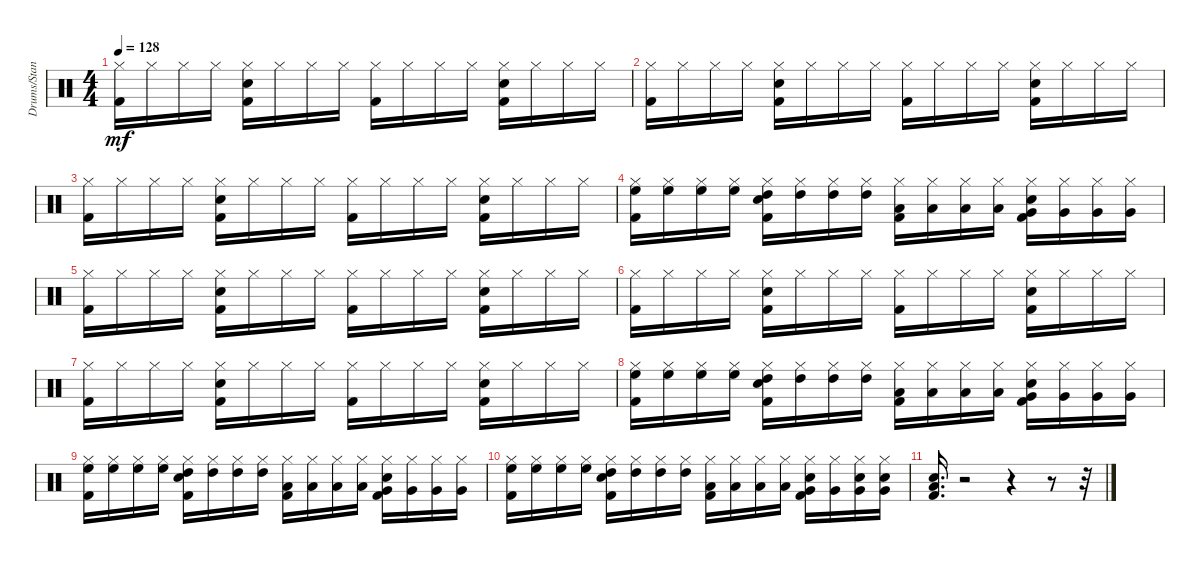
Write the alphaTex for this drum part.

\track ("Drums/Standard" "Drums/Stan") {instrument percussion}
\staff {score}
\articulation defaults
\ts (4 4)
\tempo 128
\clef neutral
\ks c
("Kick (hit) 2" "Hi-Hat (closed)").16{dy mf} "Hi-Hat (closed)".16 "Hi-Hat (closed)".16 "Hi-Hat (closed)".16 ("Snare (hit) 2" "Kick (hit) 2" "Hi-Hat (closed)").16 "Hi-Hat (closed)".16 "Hi-Hat (closed)".16 "Hi-Hat (closed)".16 ("Kick (hit) 2" "Hi-Hat (closed)").16 "Hi-Hat (closed)".16 "Hi-Hat (closed)".16 "Hi-Hat (closed)".16 ("Kick (hit) 2" "Hi-Hat (closed)" "Snare (hit) 2").16 "Hi-Hat (closed)".16 "Hi-Hat (closed)".16 "Hi-Hat (closed)".16 |
("Hi-Hat (closed)" "Kick (hit) 2").16 "Hi-Hat (closed)".16 "Hi-Hat (closed)".16 "Hi-Hat (closed)".16 ("Hi-Hat (closed)" "Kick (hit) 2" "Snare (hit) 2").16 "Hi-Hat (closed)".16 "Hi-Hat (closed)".16 "Hi-Hat (closed)".16 ("Kick (hit) 2" "Hi-Hat (closed)").16 "Hi-Hat (closed)".16 "Hi-Hat (closed)".16 "Hi-Hat (closed)".16 ("Kick (hit) 2" "Snare (hit) 2" "Hi-Hat (closed)").16 "Hi-Hat (closed)".16 "Hi-Hat (closed)".16 "Hi-Hat (closed)".16 |
("Hi-Hat (closed)" "Kick (hit) 2").16 "Hi-Hat (closed)".16 "Hi-Hat (closed)".16 "Hi-Hat (closed)".16 ("Hi-Hat (closed)" "Kick (hit) 2" "Snare (hit) 2").16 "Hi-Hat (closed)".16 "Hi-Hat (closed)".16 "Hi-Hat (closed)".16 ("Hi-Hat (closed)" "Kick (hit) 2").16 "Hi-Hat (closed)".16 "Hi-Hat (closed)".16 "Hi-Hat (closed)".16 ("Snare (hit) 2" "Hi-Hat (closed)" "Kick (hit) 2").16 "Hi-Hat (closed)".16 "Hi-Hat (closed)".16 "Hi-Hat (closed)".16 |
("Kick (hit) 2" "Hi-Hat (closed)" "High Floor Tom (hit)").16 ("Hi-Hat (closed)" "High Floor Tom (hit)").16 ("Hi-Hat (closed)" "High Floor Tom (hit)").16 ("Hi-Hat (closed)" "High Floor Tom (hit)").16 ("Snare (hit) 2" "Kick (hit) 2" "Hi-Hat (closed)" "High Tom (hit)").16 ("Hi-Hat (closed)" "High Tom (hit)").16 ("Hi-Hat (closed)" "High Tom (hit)").16 ("Hi-Hat (closed)" "High Tom (hit)").16 ("Hi-Hat (closed)" "Kick (hit) 2" "Low Tom (hit)").16 ("Hi-Hat (closed)" "Low Tom (hit)").16 ("Hi-Hat (closed)" "Low Tom (hit)").16 ("Hi-Hat (closed)" "Low Tom (hit)").16 ("Hi-Hat (closed)" "Snare (hit) 2" "Kick (hit) 2" "Very Low Tom (hit)").16 ("Hi-Hat (closed)" "Very Low Tom (hit)").16 ("Hi-Hat (closed)" "Very Low Tom (hit)").16 ("Hi-Hat (closed)" "Very Low Tom (hit)").16 |
("Kick (hit) 2" "Hi-Hat (closed)").16 "Hi-Hat (closed)".16 "Hi-Hat (closed)".16 "Hi-Hat (closed)".16 ("Snare (hit) 2" "Kick (hit) 2" "Hi-Hat (closed)").16 "Hi-Hat (closed)".16 "Hi-Hat (closed)".16 "Hi-Hat (closed)".16 ("Kick (hit) 2" "Hi-Hat (closed)").16 "Hi-Hat (closed)".16 "Hi-Hat (closed)".16 "Hi-Hat (closed)".16 ("Kick (hit) 2" "Hi-Hat (closed)" "Snare (hit) 2").16 "Hi-Hat (closed)".16 "Hi-Hat (closed)".16 "Hi-Hat (closed)".16 |
("Hi-Hat (closed)" "Kick (hit) 2").16 "Hi-Hat (closed)".16 "Hi-Hat (closed)".16 "Hi-Hat (closed)".16 ("Hi-Hat (closed)" "Kick (hit) 2" "Snare (hit) 2").16 "Hi-Hat (closed)".16 "Hi-Hat (closed)".16 "Hi-Hat (closed)".16 ("Kick (hit) 2" "Hi-Hat (closed)").16 "Hi-Hat (closed)".16 "Hi-Hat (closed)".16 "Hi-Hat (closed)".16 ("Kick (hit) 2" "Snare (hit) 2" "Hi-Hat (closed)").16 "Hi-Hat (closed)".16 "Hi-Hat (closed)".16 "Hi-Hat (closed)".16 |
("Hi-Hat (closed)" "Kick (hit) 2").16 "Hi-Hat (closed)".16 "Hi-Hat (closed)".16 "Hi-Hat (closed)".16 ("Hi-Hat (closed)" "Kick (hit) 2" "Snare (hit) 2").16 "Hi-Hat (closed)".16 "Hi-Hat (closed)".16 "Hi-Hat (closed)".16 ("Hi-Hat (closed)" "Kick (hit) 2").16 "Hi-Hat (closed)".16 "Hi-Hat (closed)".16 "Hi-Hat (closed)".16 ("Snare (hit) 2" "Hi-Hat (closed)" "Kick (hit) 2").16 "Hi-Hat (closed)".16 "Hi-Hat (closed)".16 "Hi-Hat (closed)".16 |
("Kick (hit) 2" "Hi-Hat (closed)" "High Floor Tom (hit)").16 ("Hi-Hat (closed)" "High Floor Tom (hit)").16 ("Hi-Hat (closed)" "High Floor Tom (hit)").16 ("Hi-Hat (closed)" "High Floor Tom (hit)").16 ("Snare (hit) 2" "Kick (hit) 2" "Hi-Hat (closed)" "High Tom (hit)").16 ("Hi-Hat (closed)" "High Tom (hit)").16 ("Hi-Hat (closed)" "High Tom (hit)").16 ("Hi-Hat (closed)" "High Tom (hit)").16 ("Hi-Hat (closed)" "Kick (hit) 2" "Low Tom (hit)").16 ("Hi-Hat (closed)" "Low Tom (hit)").16 ("Hi-Hat (closed)" "Low Tom (hit)").16 ("Hi-Hat (closed)" "Low Tom (hit)").16 ("Hi-Hat (closed)" "Snare (hit) 2" "Kick (hit) 2" "Very Low Tom (hit)").16 ("Hi-Hat (closed)" "Very Low Tom (hit)").16 ("Hi-Hat (closed)" "Very Low Tom (hit)").16 ("Hi-Hat (closed)" "Very Low Tom (hit)").16 |
("High Floor Tom (hit)" "Hi-Hat (closed)" "Kick (hit) 2").16 ("High Floor Tom (hit)" "Hi-Hat (closed)").16 ("High Floor Tom (hit)" "Hi-Hat (closed)").16 ("High Floor Tom (hit)" "Hi-Hat (closed)").16 ("High Tom (hit)" "Hi-Hat (closed)" "Kick (hit) 2" "Snare (hit) 2").16 ("High Tom (hit)" "Hi-Hat (closed)").16 ("High Tom (hit)" "Hi-Hat (closed)").16 ("High Tom (hit)" "Hi-Hat (closed)").16 ("Low Tom (hit)" "Kick (hit) 2" "Hi-Hat (closed)").16 ("Low Tom (hit)" "Hi-Hat (closed)").16 ("Low Tom (hit)" "Hi-Hat (closed)").16 ("Low Tom (hit)" "Hi-Hat (closed)").16 ("Very Low Tom (hit)" "Kick (hit) 2" "Snare (hit) 2" "Hi-Hat (closed)").16 ("Very Low Tom (hit)" "Hi-Hat (closed)").16 ("Very Low Tom (hit)" "Hi-Hat (closed)").16 ("Very Low Tom (hit)" "Hi-Hat (closed)").16 |
("High Floor Tom (hit)" "Hi-Hat (closed)" "Kick (hit) 2").16 ("High Floor Tom (hit)" "Hi-Hat (closed)").16 ("High Floor Tom (hit)" "Hi-Hat (closed)").16 ("High Floor Tom (hit)" "Hi-Hat (closed)").16 ("High Tom (hit)" "Hi-Hat (closed)" "Kick (hit) 2" "Snare (hit) 2").16 ("High Tom (hit)" "Hi-Hat (closed)").16 ("High Tom (hit)" "Hi-Hat (closed)").16 ("High Tom (hit)" "Hi-Hat (closed)").16 ("Low Tom (hit)" "Kick (hit) 2" "Hi-Hat (closed)").16 ("Low Tom (hit)" "Hi-Hat (closed)").16 ("Low Tom (hit)" "Hi-Hat (closed)").16 ("Low Tom (hit)" "Hi-Hat (closed)").16 ("Very Low Tom (hit)" "Kick (hit) 2" "Snare (hit) 2" "Hi-Hat (closed)").16 ("Very Low Tom (hit)" "Hi-Hat (closed)").16 ("Snare (hit) 2" "Very Low Tom (hit)" "Hi-Hat (closed)").16 ("Snare (hit) 2" "Very Low Tom (hit)" "Hi-Hat (closed)").16 |
("Low Floor Tom (hit)" "Snare (hit) 2" "Kick (hit) 2").16{d} r.2 r.4 r.8 r.32
